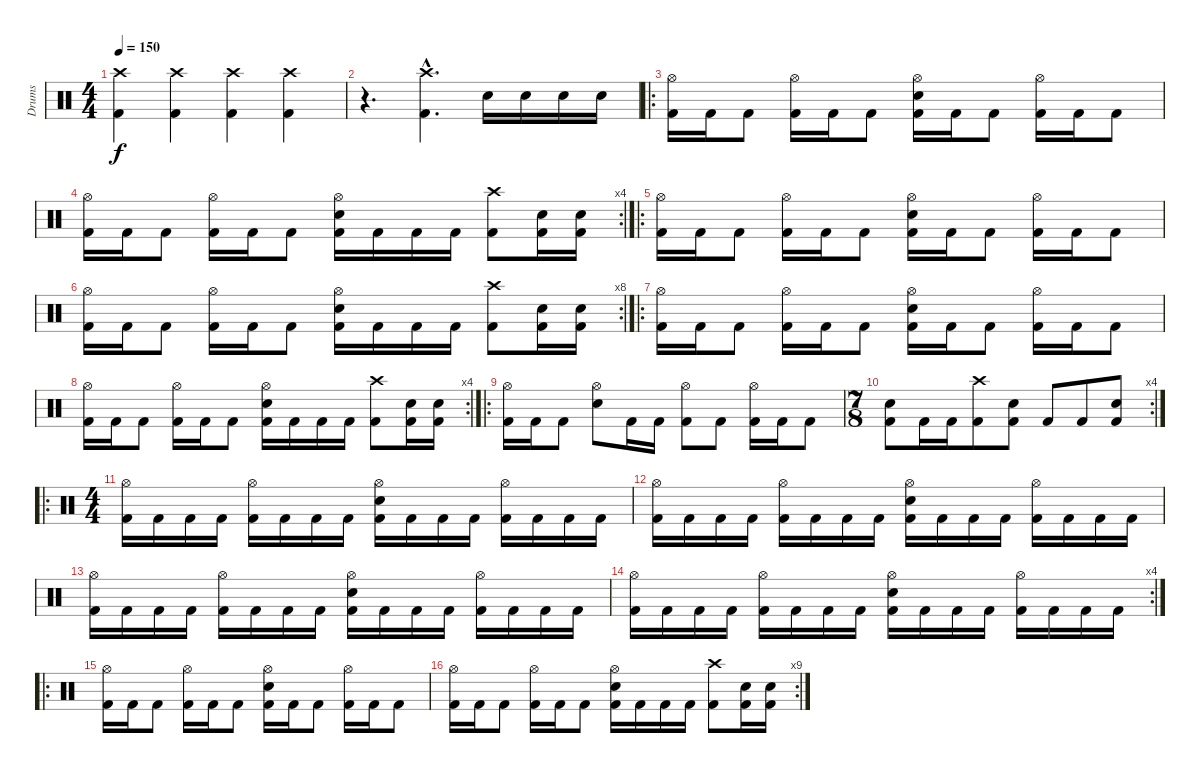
\track ("Drums" "Drums") {instrument percussion}
\staff {score}
\articulation defaults
\ts (4 4)
\tempo 150
\clef neutral
\ks c
("Crash high (hit)" "Kick (hit) 2").4{dy f} ("Crash high (hit)" "Kick (hit) 2").4 ("Crash high (hit)" "Kick (hit) 2").4 ("Crash high (hit)" "Kick (hit) 2").4 |
r.4{d} ("Crash high (hit)"{hac} "Kick (hit) 2"{hac}).4{d} "Snare (hit) 2".16 "Snare (hit) 2".16 "Snare (hit) 2".16 "Snare (hit) 2".16 |
\ro
("Hi-Hat (open)" "Kick (hit) 2").16 "Kick (hit) 2".16 "Kick (hit) 2".8 ("Hi-Hat (open)" "Kick (hit) 2").16 "Kick (hit) 2".16 "Kick (hit) 2".8 ("Hi-Hat (open)" "Snare (hit) 2" "Kick (hit) 2").16 "Kick (hit) 2".16 "Kick (hit) 2".8 ("Hi-Hat (open)" "Kick (hit) 2").16 "Kick (hit) 2".16 "Kick (hit) 2".8 |
\rc 4
("Hi-Hat (open)" "Kick (hit) 2").16 "Kick (hit) 2".16 "Kick (hit) 2".8 ("Hi-Hat (open)" "Kick (hit) 2").16 "Kick (hit) 2".16 "Kick (hit) 2".8 ("Hi-Hat (open)" "Snare (hit) 2" "Kick (hit) 2").16 "Kick (hit) 2".16 "Kick (hit) 2".16 "Kick (hit) 2".16 ("Crash high (hit)" "Kick (hit) 2").8 ("Snare (hit) 2" "Kick (hit) 2").16 ("Snare (hit) 2" "Kick (hit) 2").16 |
\ro
("Hi-Hat (open)" "Kick (hit) 2").16 "Kick (hit) 2".16 "Kick (hit) 2".8 ("Hi-Hat (open)" "Kick (hit) 2").16 "Kick (hit) 2".16 "Kick (hit) 2".8 ("Hi-Hat (open)" "Snare (hit) 2" "Kick (hit) 2").16 "Kick (hit) 2".16 "Kick (hit) 2".8 ("Hi-Hat (open)" "Kick (hit) 2").16 "Kick (hit) 2".16 "Kick (hit) 2".8 |
\rc 8
("Hi-Hat (open)" "Kick (hit) 2").16 "Kick (hit) 2".16 "Kick (hit) 2".8 ("Hi-Hat (open)" "Kick (hit) 2").16 "Kick (hit) 2".16 "Kick (hit) 2".8 ("Hi-Hat (open)" "Snare (hit) 2" "Kick (hit) 2").16 "Kick (hit) 2".16 "Kick (hit) 2".16 "Kick (hit) 2".16 ("Crash high (hit)" "Kick (hit) 2").8 ("Snare (hit) 2" "Kick (hit) 2").16 ("Snare (hit) 2" "Kick (hit) 2").16 |
\ro
("Hi-Hat (open)" "Kick (hit) 2").16 "Kick (hit) 2".16 "Kick (hit) 2".8 ("Hi-Hat (open)" "Kick (hit) 2").16 "Kick (hit) 2".16 "Kick (hit) 2".8 ("Hi-Hat (open)" "Snare (hit) 2" "Kick (hit) 2").16 "Kick (hit) 2".16 "Kick (hit) 2".8 ("Hi-Hat (open)" "Kick (hit) 2").16 "Kick (hit) 2".16 "Kick (hit) 2".8 |
\rc 4
("Hi-Hat (open)" "Kick (hit) 2").16 "Kick (hit) 2".16 "Kick (hit) 2".8 ("Hi-Hat (open)" "Kick (hit) 2").16 "Kick (hit) 2".16 "Kick (hit) 2".8 ("Hi-Hat (open)" "Snare (hit) 2" "Kick (hit) 2").16 "Kick (hit) 2".16 "Kick (hit) 2".16 "Kick (hit) 2".16 ("Crash high (hit)" "Kick (hit) 2").8 ("Snare (hit) 2" "Kick (hit) 2").16 ("Snare (hit) 2" "Kick (hit) 2").16 |
\ro
("Hi-Hat (open)" "Kick (hit) 2").16 "Kick (hit) 2".16 "Kick (hit) 2".8 ("Hi-Hat (open)" "Snare (hit) 2").8 "Kick (hit) 2".16 "Kick (hit) 2".16 ("Hi-Hat (open)" "Kick (hit) 2").8 "Kick (hit) 2".8 ("Hi-Hat (open)" "Kick (hit) 2").16 "Kick (hit) 2".16 "Kick (hit) 2".8 |
\rc 4
\ts (7 8)
("Snare (hit) 2" "Kick (hit) 2").8 "Kick (hit) 2".16 "Kick (hit) 2".16 ("Crash high (hit)" "Kick (hit) 2").8 ("Snare (hit) 2" "Kick (hit) 2").8 "Kick (hit) 2".8 "Kick (hit) 2".8 ("Snare (hit) 2" "Kick (hit) 2").8 |
\ro
\ts (4 4)
("Hi-Hat (open)" "Kick (hit) 2").16 "Kick (hit) 2".16 "Kick (hit) 2".16 "Kick (hit) 2".16 ("Hi-Hat (open)" "Kick (hit) 2").16 "Kick (hit) 2".16 "Kick (hit) 2".16 "Kick (hit) 2".16 ("Hi-Hat (open)" "Snare (hit) 2" "Kick (hit) 2").16 "Kick (hit) 2".16 "Kick (hit) 2".16 "Kick (hit) 2".16 ("Hi-Hat (open)" "Kick (hit) 2").16 "Kick (hit) 2".16 "Kick (hit) 2".16 "Kick (hit) 2".16 |
("Hi-Hat (open)" "Kick (hit) 2").16 "Kick (hit) 2".16 "Kick (hit) 2".16 "Kick (hit) 2".16 ("Hi-Hat (open)" "Kick (hit) 2").16 "Kick (hit) 2".16 "Kick (hit) 2".16 "Kick (hit) 2".16 ("Hi-Hat (open)" "Snare (hit) 2" "Kick (hit) 2").16 "Kick (hit) 2".16 "Kick (hit) 2".16 "Kick (hit) 2".16 ("Hi-Hat (open)" "Kick (hit) 2").16 "Kick (hit) 2".16 "Kick (hit) 2".16 "Kick (hit) 2".16 |
("Hi-Hat (open)" "Kick (hit) 2").16 "Kick (hit) 2".16 "Kick (hit) 2".16 "Kick (hit) 2".16 ("Hi-Hat (open)" "Kick (hit) 2").16 "Kick (hit) 2".16 "Kick (hit) 2".16 "Kick (hit) 2".16 ("Hi-Hat (open)" "Snare (hit) 2" "Kick (hit) 2").16 "Kick (hit) 2".16 "Kick (hit) 2".16 "Kick (hit) 2".16 ("Hi-Hat (open)" "Kick (hit) 2").16 "Kick (hit) 2".16 "Kick (hit) 2".16 "Kick (hit) 2".16 |
\rc 4
("Hi-Hat (open)" "Kick (hit) 2").16 "Kick (hit) 2".16 "Kick (hit) 2".16 "Kick (hit) 2".16 ("Hi-Hat (open)" "Kick (hit) 2").16 "Kick (hit) 2".16 "Kick (hit) 2".16 "Kick (hit) 2".16 ("Hi-Hat (open)" "Snare (hit) 2" "Kick (hit) 2").16 "Kick (hit) 2".16 "Kick (hit) 2".16 "Kick (hit) 2".16 ("Hi-Hat (open)" "Kick (hit) 2").16 "Kick (hit) 2".16 "Kick (hit) 2".16 "Kick (hit) 2".16 |
\ro
("Hi-Hat (open)" "Kick (hit) 2").16 "Kick (hit) 2".16 "Kick (hit) 2".8 ("Hi-Hat (open)" "Kick (hit) 2").16 "Kick (hit) 2".16 "Kick (hit) 2".8 ("Hi-Hat (open)" "Snare (hit) 2" "Kick (hit) 2").16 "Kick (hit) 2".16 "Kick (hit) 2".8 ("Hi-Hat (open)" "Kick (hit) 2").16 "Kick (hit) 2".16 "Kick (hit) 2".8 |
\rc 9
("Hi-Hat (open)" "Kick (hit) 2").16 "Kick (hit) 2".16 "Kick (hit) 2".8 ("Hi-Hat (open)" "Kick (hit) 2").16 "Kick (hit) 2".16 "Kick (hit) 2".8 ("Hi-Hat (open)" "Snare (hit) 2" "Kick (hit) 2").16 "Kick (hit) 2".16 "Kick (hit) 2".16 "Kick (hit) 2".16 ("Crash high (hit)" "Kick (hit) 2").8 ("Snare (hit) 2" "Kick (hit) 2").16 ("Snare (hit) 2" "Kick (hit) 2").16
